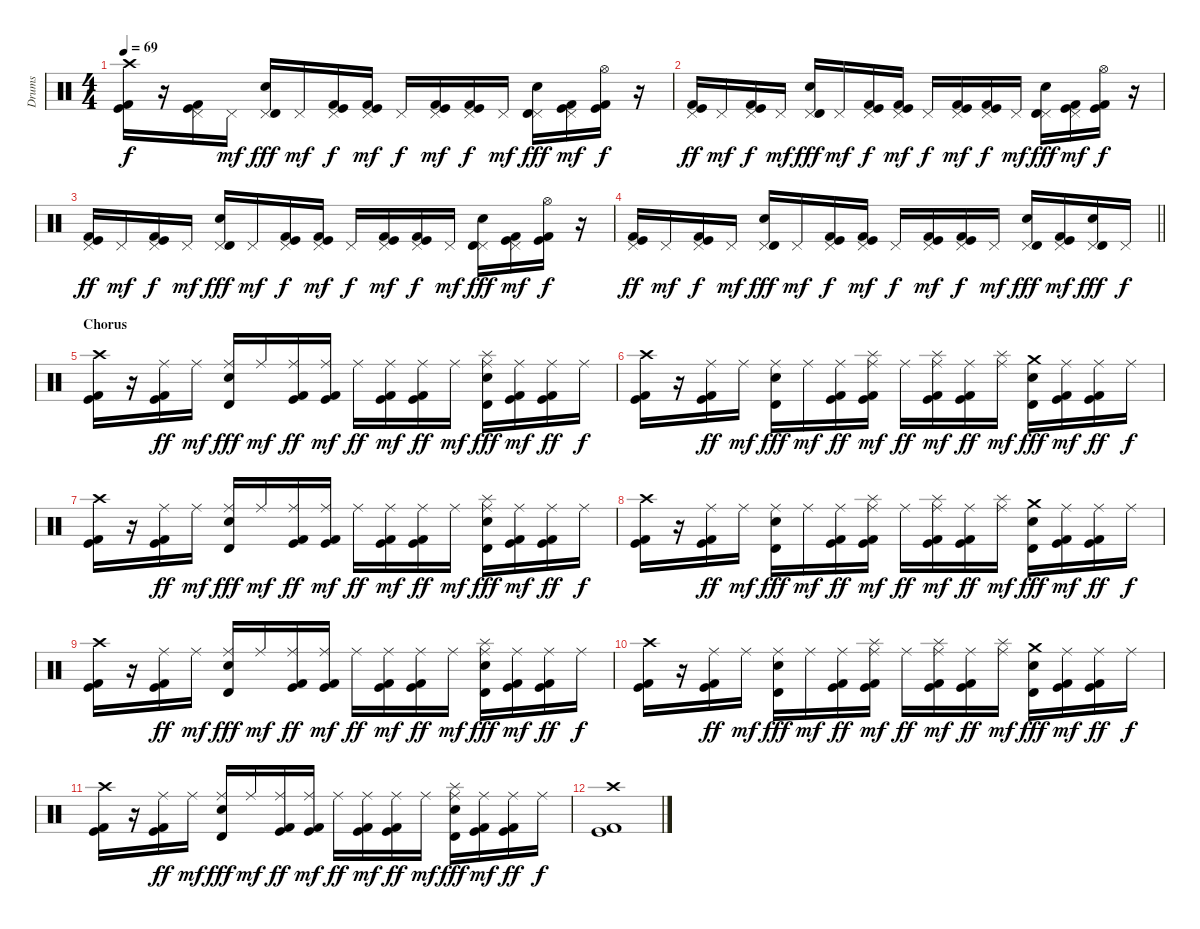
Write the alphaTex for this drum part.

\track ("Drums" "Drums") {instrument percussion}
\staff {score}
\articulation defaults
\ts (4 4)
\tempo 69
\clef neutral
\ks c
("Crash high (hit)" "Kick (hit) 2" "Kick (hit)").16{dy f} r.16 ("Pedal Hi-Hat (hit)" "Kick (hit) 2" "Kick (hit)").16 "Pedal Hi-Hat (hit)".16{dy mf} ("Pedal Hi-Hat (hit)" "Timbale high (hit)" "Electric Snare (hit)").16{dy fff} "Pedal Hi-Hat (hit)".16{dy mf} ("Pedal Hi-Hat (hit)" "Kick (hit) 2" "Kick (hit)").16{dy f} ("Pedal Hi-Hat (hit)" "Kick (hit) 2" "Kick (hit)").16{dy mf} "Pedal Hi-Hat (hit)".16{dy f} ("Pedal Hi-Hat (hit)" "Kick (hit) 2" "Kick (hit)").16{dy mf} ("Pedal Hi-Hat (hit)" "Kick (hit) 2" "Kick (hit)").16{dy f} "Pedal Hi-Hat (hit)".16{dy mf} ("Pedal Hi-Hat (hit)" "Timbale high (hit)" "Electric Snare (hit)").16{dy fff} ("Pedal Hi-Hat (hit)" "Kick (hit) 2" "Kick (hit)").16{dy mf} ("Hi-Hat (open)" "Kick (hit) 2" "Kick (hit)").16{dy f} r.16 |
("Pedal Hi-Hat (hit)" "Kick (hit) 2" "Kick (hit)").16{dy ff} "Pedal Hi-Hat (hit)".16{dy mf} ("Pedal Hi-Hat (hit)" "Kick (hit) 2" "Kick (hit)").16{dy f} "Pedal Hi-Hat (hit)".16{dy mf} ("Pedal Hi-Hat (hit)" "Timbale high (hit)" "Electric Snare (hit)").16{dy fff} "Pedal Hi-Hat (hit)".16{dy mf} ("Pedal Hi-Hat (hit)" "Kick (hit) 2" "Kick (hit)").16{dy f} ("Pedal Hi-Hat (hit)" "Kick (hit) 2" "Kick (hit)").16{dy mf} "Pedal Hi-Hat (hit)".16{dy f} ("Pedal Hi-Hat (hit)" "Kick (hit) 2" "Kick (hit)").16{dy mf} ("Pedal Hi-Hat (hit)" "Kick (hit) 2" "Kick (hit)").16{dy f} "Pedal Hi-Hat (hit)".16{dy mf} ("Pedal Hi-Hat (hit)" "Timbale high (hit)" "Electric Snare (hit)").16{dy fff} ("Pedal Hi-Hat (hit)" "Kick (hit) 2" "Kick (hit)").16{dy mf} ("Hi-Hat (open)" "Kick (hit) 2" "Kick (hit)").16{dy f} r.16 |
("Pedal Hi-Hat (hit)" "Kick (hit) 2" "Kick (hit)").16{dy ff} "Pedal Hi-Hat (hit)".16{dy mf} ("Pedal Hi-Hat (hit)" "Kick (hit) 2" "Kick (hit)").16{dy f} "Pedal Hi-Hat (hit)".16{dy mf} ("Pedal Hi-Hat (hit)" "Timbale high (hit)" "Electric Snare (hit)").16{dy fff} "Pedal Hi-Hat (hit)".16{dy mf} ("Pedal Hi-Hat (hit)" "Kick (hit) 2" "Kick (hit)").16{dy f} ("Pedal Hi-Hat (hit)" "Kick (hit) 2" "Kick (hit)").16{dy mf} "Pedal Hi-Hat (hit)".16{dy f} ("Pedal Hi-Hat (hit)" "Kick (hit) 2" "Kick (hit)").16{dy mf} ("Pedal Hi-Hat (hit)" "Kick (hit) 2" "Kick (hit)").16{dy f} "Pedal Hi-Hat (hit)".16{dy mf} ("Pedal Hi-Hat (hit)" "Timbale high (hit)" "Electric Snare (hit)").16{dy fff} ("Pedal Hi-Hat (hit)" "Kick (hit) 2" "Kick (hit)").16{dy mf} ("Hi-Hat (open)" "Kick (hit) 2" "Kick (hit)").16{dy f} r.16 |
\barLineRight lightlight
("Pedal Hi-Hat (hit)" "Kick (hit) 2" "Kick (hit)").16{dy ff} "Pedal Hi-Hat (hit)".16{dy mf} ("Pedal Hi-Hat (hit)" "Kick (hit) 2" "Kick (hit)").16{dy f} "Pedal Hi-Hat (hit)".16{dy mf} ("Pedal Hi-Hat (hit)" "Timbale high (hit)" "Electric Snare (hit)").16{dy fff} "Pedal Hi-Hat (hit)".16{dy mf} ("Pedal Hi-Hat (hit)" "Kick (hit) 2" "Kick (hit)").16{dy f} ("Pedal Hi-Hat (hit)" "Kick (hit) 2" "Kick (hit)").16{dy mf} "Pedal Hi-Hat (hit)".16{dy f} ("Pedal Hi-Hat (hit)" "Kick (hit) 2" "Kick (hit)").16{dy mf} ("Pedal Hi-Hat (hit)" "Kick (hit) 2" "Kick (hit)").16{dy f} "Pedal Hi-Hat (hit)".16{dy mf} ("Pedal Hi-Hat (hit)" "Timbale high (hit)" "Electric Snare (hit)").16{dy fff} ("Pedal Hi-Hat (hit)" "Kick (hit) 2" "Kick (hit)").16{dy mf} ("Pedal Hi-Hat (hit)" "Timbale high (hit)" "Electric Snare (hit)").16{dy fff} "Pedal Hi-Hat (hit)".16{dy f} |
\section ("" "Chorus")
("Crash high (hit)" "Kick (hit) 2" "Kick (hit)").16 r.16 ("Ride (middle)" "Kick (hit) 2" "Kick (hit)").16{dy ff} "Ride (middle)".16{dy mf} ("Ride (middle)" "Timbale high (hit)" "Electric Snare (hit)").16{dy fff} "Ride (middle)".16{dy mf} ("Ride (middle)" "Kick (hit) 2" "Kick (hit)").16{dy ff} ("Ride (middle)" "Kick (hit) 2" "Kick (hit)").16{dy mf} "Ride (middle)".16{dy ff} ("Ride (middle)" "Kick (hit) 2" "Kick (hit)").16{dy mf} ("Ride (middle)" "Kick (hit) 2" "Kick (hit)").16{dy ff} "Ride (middle)".16{dy mf} ("Splash (hit)" "Ride (middle)" "Timbale high (hit)" "Electric Snare (hit)").16{dy fff} ("Ride (middle)" "Kick (hit) 2" "Kick (hit)").16{dy mf} ("Ride (middle)" "Kick (hit) 2" "Kick (hit)").16{dy ff} "Ride (middle)".16{dy f} |
("Crash high (hit)" "Kick (hit) 2" "Kick (hit)").16 r.16 ("Ride (middle)" "Kick (hit) 2" "Kick (hit)").16{dy ff} "Ride (middle)".16{dy mf} ("Ride (middle)" "Timbale high (hit)" "Electric Snare (hit)").16{dy fff} "Ride (middle)".16{dy mf} ("Ride (middle)" "Kick (hit) 2" "Kick (hit)").16{dy ff} ("Splash (hit)" "Ride (middle)" "Kick (hit) 2" "Kick (hit)").16{dy mf} "Ride (middle)".16{dy ff} ("Splash (hit)" "Ride (middle)" "Kick (hit) 2" "Kick (hit)").16{dy mf} ("Ride (middle)" "Kick (hit) 2" "Kick (hit)").16{dy ff} ("Splash (hit)" "Ride (middle)").16{dy mf} ("Crash medium (hit)" "Timbale high (hit)" "Electric Snare (hit)").16{dy fff} ("Ride (middle)" "Kick (hit) 2" "Kick (hit)").16{dy mf} ("Ride (middle)" "Kick (hit) 2" "Kick (hit)").16{dy ff} "Ride (middle)".16{dy f} |
("Crash high (hit)" "Kick (hit) 2" "Kick (hit)").16 r.16 ("Ride (middle)" "Kick (hit) 2" "Kick (hit)").16{dy ff} "Ride (middle)".16{dy mf} ("Ride (middle)" "Timbale high (hit)" "Electric Snare (hit)").16{dy fff} "Ride (middle)".16{dy mf} ("Ride (middle)" "Kick (hit) 2" "Kick (hit)").16{dy ff} ("Ride (middle)" "Kick (hit) 2" "Kick (hit)").16{dy mf} "Ride (middle)".16{dy ff} ("Ride (middle)" "Kick (hit) 2" "Kick (hit)").16{dy mf} ("Ride (middle)" "Kick (hit) 2" "Kick (hit)").16{dy ff} "Ride (middle)".16{dy mf} ("Splash (hit)" "Ride (middle)" "Timbale high (hit)" "Electric Snare (hit)").16{dy fff} ("Ride (middle)" "Kick (hit) 2" "Kick (hit)").16{dy mf} ("Ride (middle)" "Kick (hit) 2" "Kick (hit)").16{dy ff} "Ride (middle)".16{dy f} |
("Crash high (hit)" "Kick (hit) 2" "Kick (hit)").16 r.16 ("Ride (middle)" "Kick (hit) 2" "Kick (hit)").16{dy ff} "Ride (middle)".16{dy mf} ("Ride (middle)" "Timbale high (hit)" "Electric Snare (hit)").16{dy fff} "Ride (middle)".16{dy mf} ("Ride (middle)" "Kick (hit) 2" "Kick (hit)").16{dy ff} ("Splash (hit)" "Ride (middle)" "Kick (hit) 2" "Kick (hit)").16{dy mf} "Ride (middle)".16{dy ff} ("Splash (hit)" "Ride (middle)" "Kick (hit) 2" "Kick (hit)").16{dy mf} ("Ride (middle)" "Kick (hit) 2" "Kick (hit)").16{dy ff} ("Splash (hit)" "Ride (middle)").16{dy mf} ("Crash medium (hit)" "Timbale high (hit)" "Electric Snare (hit)").16{dy fff} ("Ride (middle)" "Kick (hit) 2" "Kick (hit)").16{dy mf} ("Ride (middle)" "Kick (hit) 2" "Kick (hit)").16{dy ff} "Ride (middle)".16{dy f} |
("Crash high (hit)" "Kick (hit) 2" "Kick (hit)").16 r.16 ("Ride (middle)" "Kick (hit) 2" "Kick (hit)").16{dy ff} "Ride (middle)".16{dy mf} ("Ride (middle)" "Timbale high (hit)" "Electric Snare (hit)").16{dy fff} "Ride (middle)".16{dy mf} ("Ride (middle)" "Kick (hit) 2" "Kick (hit)").16{dy ff} ("Ride (middle)" "Kick (hit) 2" "Kick (hit)").16{dy mf} "Ride (middle)".16{dy ff} ("Ride (middle)" "Kick (hit) 2" "Kick (hit)").16{dy mf} ("Ride (middle)" "Kick (hit) 2" "Kick (hit)").16{dy ff} "Ride (middle)".16{dy mf} ("Splash (hit)" "Ride (middle)" "Timbale high (hit)" "Electric Snare (hit)").16{dy fff} ("Ride (middle)" "Kick (hit) 2" "Kick (hit)").16{dy mf} ("Ride (middle)" "Kick (hit) 2" "Kick (hit)").16{dy ff} "Ride (middle)".16{dy f} |
("Crash high (hit)" "Kick (hit) 2" "Kick (hit)").16 r.16 ("Ride (middle)" "Kick (hit) 2" "Kick (hit)").16{dy ff} "Ride (middle)".16{dy mf} ("Ride (middle)" "Timbale high (hit)" "Electric Snare (hit)").16{dy fff} "Ride (middle)".16{dy mf} ("Ride (middle)" "Kick (hit) 2" "Kick (hit)").16{dy ff} ("Splash (hit)" "Ride (middle)" "Kick (hit) 2" "Kick (hit)").16{dy mf} "Ride (middle)".16{dy ff} ("Splash (hit)" "Ride (middle)" "Kick (hit) 2" "Kick (hit)").16{dy mf} ("Ride (middle)" "Kick (hit) 2" "Kick (hit)").16{dy ff} ("Splash (hit)" "Ride (middle)").16{dy mf} ("Crash medium (hit)" "Timbale high (hit)" "Electric Snare (hit)").16{dy fff} ("Ride (middle)" "Kick (hit) 2" "Kick (hit)").16{dy mf} ("Ride (middle)" "Kick (hit) 2" "Kick (hit)").16{dy ff} "Ride (middle)".16{dy f} |
("Crash high (hit)" "Kick (hit) 2" "Kick (hit)").16 r.16 ("Ride (middle)" "Kick (hit) 2" "Kick (hit)").16{dy ff} "Ride (middle)".16{dy mf} ("Ride (middle)" "Timbale high (hit)" "Electric Snare (hit)").16{dy fff} "Ride (middle)".16{dy mf} ("Ride (middle)" "Kick (hit) 2" "Kick (hit)").16{dy ff} ("Ride (middle)" "Kick (hit) 2" "Kick (hit)").16{dy mf} "Ride (middle)".16{dy ff} ("Ride (middle)" "Kick (hit) 2" "Kick (hit)").16{dy mf} ("Ride (middle)" "Kick (hit) 2" "Kick (hit)").16{dy ff} "Ride (middle)".16{dy mf} ("Splash (hit)" "Ride (middle)" "Timbale high (hit)" "Electric Snare (hit)").16{dy fff} ("Ride (middle)" "Kick (hit) 2" "Kick (hit)").16{dy mf} ("Ride (middle)" "Kick (hit) 2" "Kick (hit)").16{dy ff} "Ride (middle)".16{dy f} |
("Crash high (hit)" "Kick (hit) 2" "Kick (hit)").1
